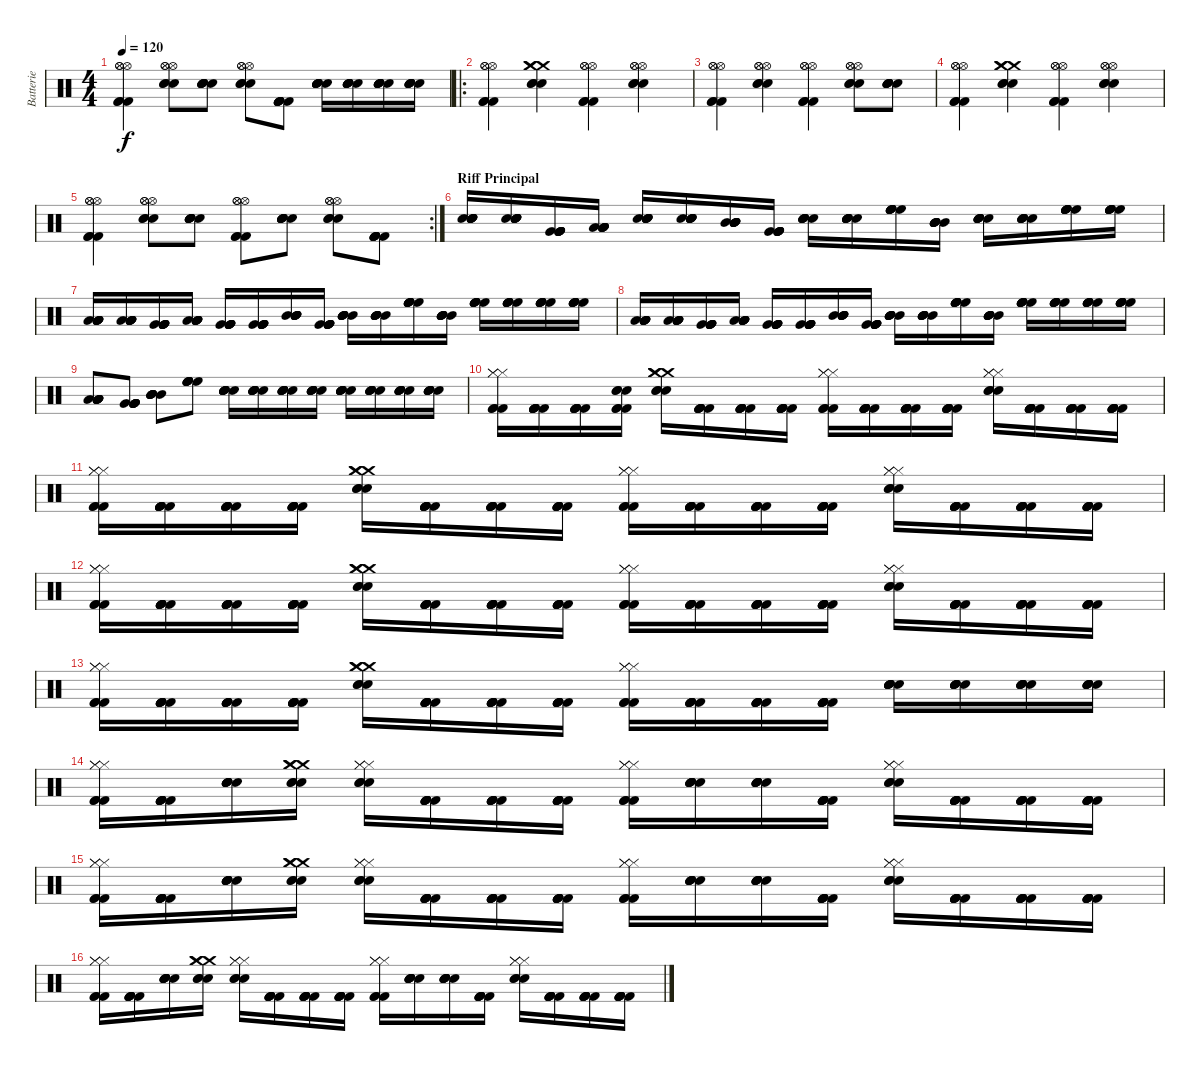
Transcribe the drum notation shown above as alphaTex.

\track ("Batterie" "Batterie") {instrument percussion}
\staff {score}
\articulation defaults
\ts (4 4)
\tempo 120
\clef neutral
\ks c
("Hi-Hat (open)" "Hi-Hat (open)" "Hi-Hat (open)" "Kick (hit) 2" "Kick (hit) 2" "Kick (hit) 2").4{dy f} ("Hi-Hat (open)" "Hi-Hat (open)" "Hi-Hat (open)" "Snare (hit) 2" "Snare (hit) 2" "Snare (hit) 2").8 ("Snare (hit) 2" "Snare (hit) 2" "Snare (hit) 2" "Snare (hit) 2" "Snare (hit) 2" "Snare (hit) 2").8 ("Hi-Hat (open)" "Hi-Hat (open)" "Hi-Hat (open)" "Snare (hit) 2" "Snare (hit) 2" "Snare (hit) 2").8 ("Kick (hit) 2" "Kick (hit) 2" "Kick (hit) 2" "Kick (hit) 2" "Kick (hit) 2" "Kick (hit) 2").8 ("Snare (hit) 2" "Snare (hit) 2" "Snare (hit) 2" "Snare (hit) 2" "Snare (hit) 2" "Snare (hit) 2").16 ("Snare (hit) 2" "Snare (hit) 2" "Snare (hit) 2" "Snare (hit) 2" "Snare (hit) 2" "Snare (hit) 2").16 ("Snare (hit) 2" "Snare (hit) 2" "Snare (hit) 2" "Snare (hit) 2" "Snare (hit) 2" "Snare (hit) 2").16 ("Snare (hit) 2" "Snare (hit) 2" "Snare (hit) 2" "Snare (hit) 2" "Snare (hit) 2" "Snare (hit) 2").16 |
\ro
("Hi-Hat (open)" "Hi-Hat (open)" "Hi-Hat (open)" "Kick (hit) 2" "Kick (hit) 2" "Kick (hit) 2").4 ("Crash medium (hit)" "Crash medium (hit)" "Crash medium (hit)" "Snare (hit) 2" "Snare (hit) 2" "Snare (hit) 2").4 ("Kick (hit) 2" "Kick (hit) 2" "Hi-Hat (open)" "Hi-Hat (open)" "Hi-Hat (open)" "Kick (hit) 2").4 ("Hi-Hat (open)" "Hi-Hat (open)" "Snare (hit) 2" "Snare (hit) 2" "Snare (hit) 2" "Hi-Hat (open)").4 |
("Hi-Hat (open)" "Hi-Hat (open)" "Hi-Hat (open)" "Kick (hit) 2" "Kick (hit) 2" "Kick (hit) 2").4 ("Hi-Hat (open)" "Hi-Hat (open)" "Hi-Hat (open)" "Snare (hit) 2" "Snare (hit) 2" "Snare (hit) 2").4 ("Kick (hit) 2" "Kick (hit) 2" "Hi-Hat (open)" "Hi-Hat (open)" "Hi-Hat (open)" "Kick (hit) 2").4 ("Hi-Hat (open)" "Hi-Hat (open)" "Snare (hit) 2" "Snare (hit) 2" "Snare (hit) 2" "Hi-Hat (open)").8 ("Snare (hit) 2" "Snare (hit) 2" "Snare (hit) 2" "Snare (hit) 2" "Snare (hit) 2" "Snare (hit) 2").8 |
("Hi-Hat (open)" "Hi-Hat (open)" "Hi-Hat (open)" "Kick (hit) 2" "Kick (hit) 2" "Kick (hit) 2").4 ("Crash medium (hit)" "Crash medium (hit)" "Crash medium (hit)" "Snare (hit) 2" "Snare (hit) 2" "Snare (hit) 2").4 ("Kick (hit) 2" "Kick (hit) 2" "Hi-Hat (open)" "Hi-Hat (open)" "Hi-Hat (open)" "Kick (hit) 2").4 ("Hi-Hat (open)" "Hi-Hat (open)" "Snare (hit) 2" "Snare (hit) 2" "Snare (hit) 2" "Hi-Hat (open)").4 |
\rc 2
("Hi-Hat (open)" "Hi-Hat (open)" "Hi-Hat (open)" "Kick (hit) 2" "Kick (hit) 2" "Kick (hit) 2").4 ("Hi-Hat (open)" "Hi-Hat (open)" "Hi-Hat (open)" "Snare (hit) 2" "Snare (hit) 2" "Snare (hit) 2").8 ("Snare (hit) 2" "Snare (hit) 2" "Snare (hit) 2" "Snare (hit) 2" "Snare (hit) 2" "Snare (hit) 2").8 ("Hi-Hat (open)" "Hi-Hat (open)" "Hi-Hat (open)" "Kick (hit) 2" "Kick (hit) 2" "Kick (hit) 2").8 ("Snare (hit) 2" "Snare (hit) 2" "Snare (hit) 2" "Snare (hit) 2" "Snare (hit) 2" "Snare (hit) 2").8 ("Hi-Hat (open)" "Hi-Hat (open)" "Hi-Hat (open)" "Snare (hit) 2" "Snare (hit) 2" "Snare (hit) 2").8 ("Kick (hit) 2" "Kick (hit) 2" "Kick (hit) 2" "Kick (hit) 2" "Kick (hit) 2" "Kick (hit) 2").8 |
\section ("" "Riff Principal")
("Snare (hit) 2" "Snare (hit) 2" "Snare (hit) 2" "Snare (hit) 2" "Snare (hit) 2" "Snare (hit) 2").16 ("Snare (hit) 2" "Snare (hit) 2" "Snare (hit) 2" "Snare (hit) 2" "Snare (hit) 2" "Snare (hit) 2").16 ("Very Low Tom (hit)" "Very Low Tom (hit)" "Very Low Tom (hit)" "Very Low Tom (hit)" "Very Low Tom (hit)" "Very Low Tom (hit)").16 ("Low Floor Tom (hit)" "Low Floor Tom (hit)" "Low Floor Tom (hit)" "Low Floor Tom (hit)" "Low Floor Tom (hit)" "Low Floor Tom (hit)").16 ("Snare (hit) 2" "Snare (hit) 2" "Snare (hit) 2" "Snare (hit) 2" "Snare (hit) 2" "Snare (hit) 2").16 ("Snare (hit) 2" "Snare (hit) 2" "Snare (hit) 2" "Snare (hit) 2" "Snare (hit) 2" "Snare (hit) 2").16 ("Mid Tom (hit)" "Mid Tom (hit)" "Mid Tom (hit)" "Mid Tom (hit)" "Mid Tom (hit)" "Mid Tom (hit)").16 ("Very Low Tom (hit)" "Very Low Tom (hit)" "Very Low Tom (hit)" "Very Low Tom (hit)" "Very Low Tom (hit)" "Very Low Tom (hit)").16 ("Snare (hit) 2" "Snare (hit) 2" "Snare (hit) 2" "Snare (hit) 2" "Snare (hit) 2" "Snare (hit) 2").16 ("Snare (hit) 2" "Snare (hit) 2" "Snare (hit) 2" "Snare (hit) 2" "Snare (hit) 2" "Snare (hit) 2").16 ("High Floor Tom (hit)" "High Floor Tom (hit)" "High Floor Tom (hit)" "High Floor Tom (hit)" "High Floor Tom (hit)" "High Floor Tom (hit)").16 ("Mid Tom (hit)" "Mid Tom (hit)" "Mid Tom (hit)" "Mid Tom (hit)" "Mid Tom (hit)" "Mid Tom (hit)").16 ("Snare (hit) 2" "Snare (hit) 2" "Snare (hit) 2" "Snare (hit) 2" "Snare (hit) 2" "Snare (hit) 2").16 ("Snare (hit) 2" "Snare (hit) 2" "Snare (hit) 2" "Snare (hit) 2" "Snare (hit) 2" "Snare (hit) 2").16 ("High Floor Tom (hit)" "High Floor Tom (hit)" "High Floor Tom (hit)" "High Floor Tom (hit)" "High Floor Tom (hit)" "High Floor Tom (hit)").16 ("High Floor Tom (hit)" "High Floor Tom (hit)" "High Floor Tom (hit)" "High Floor Tom (hit)" "High Floor Tom (hit)" "High Floor Tom (hit)").16 |
("Low Floor Tom (hit)" "Low Floor Tom (hit)" "Low Floor Tom (hit)" "Low Floor Tom (hit)" "Low Floor Tom (hit)" "Low Floor Tom (hit)").16 ("Low Floor Tom (hit)" "Low Floor Tom (hit)" "Low Floor Tom (hit)" "Low Floor Tom (hit)" "Low Floor Tom (hit)" "Low Floor Tom (hit)").16 ("Very Low Tom (hit)" "Very Low Tom (hit)" "Very Low Tom (hit)" "Very Low Tom (hit)" "Very Low Tom (hit)" "Very Low Tom (hit)").16 ("Low Floor Tom (hit)" "Low Floor Tom (hit)" "Low Floor Tom (hit)" "Low Floor Tom (hit)" "Low Floor Tom (hit)" "Low Floor Tom (hit)").16 ("Very Low Tom (hit)" "Very Low Tom (hit)" "Very Low Tom (hit)" "Very Low Tom (hit)" "Very Low Tom (hit)" "Very Low Tom (hit)").16 ("Very Low Tom (hit)" "Very Low Tom (hit)" "Very Low Tom (hit)" "Very Low Tom (hit)" "Very Low Tom (hit)" "Very Low Tom (hit)").16 ("Mid Tom (hit)" "Mid Tom (hit)" "Mid Tom (hit)" "Mid Tom (hit)" "Mid Tom (hit)" "Mid Tom (hit)").16 ("Very Low Tom (hit)" "Very Low Tom (hit)" "Very Low Tom (hit)" "Very Low Tom (hit)" "Very Low Tom (hit)" "Very Low Tom (hit)").16 ("Mid Tom (hit)" "Mid Tom (hit)" "Mid Tom (hit)" "Mid Tom (hit)" "Mid Tom (hit)" "Mid Tom (hit)").16 ("Mid Tom (hit)" "Mid Tom (hit)" "Mid Tom (hit)" "Mid Tom (hit)" "Mid Tom (hit)" "Mid Tom (hit)").16 ("High Floor Tom (hit)" "High Floor Tom (hit)" "High Floor Tom (hit)" "High Floor Tom (hit)" "High Floor Tom (hit)" "High Floor Tom (hit)").16 ("Mid Tom (hit)" "Mid Tom (hit)" "Mid Tom (hit)" "Mid Tom (hit)" "Mid Tom (hit)" "Mid Tom (hit)").16 ("High Floor Tom (hit)" "High Floor Tom (hit)" "High Floor Tom (hit)" "High Floor Tom (hit)" "High Floor Tom (hit)" "High Floor Tom (hit)").16 ("High Floor Tom (hit)" "High Floor Tom (hit)" "High Floor Tom (hit)" "High Floor Tom (hit)" "High Floor Tom (hit)" "High Floor Tom (hit)").16 ("High Floor Tom (hit)" "High Floor Tom (hit)" "High Floor Tom (hit)" "High Floor Tom (hit)" "High Floor Tom (hit)" "High Floor Tom (hit)").16 ("High Floor Tom (hit)" "High Floor Tom (hit)" "High Floor Tom (hit)" "High Floor Tom (hit)" "High Floor Tom (hit)" "High Floor Tom (hit)").16 |
("Low Floor Tom (hit)" "Low Floor Tom (hit)" "Low Floor Tom (hit)" "Low Floor Tom (hit)" "Low Floor Tom (hit)" "Low Floor Tom (hit)").16 ("Low Floor Tom (hit)" "Low Floor Tom (hit)" "Low Floor Tom (hit)" "Low Floor Tom (hit)" "Low Floor Tom (hit)" "Low Floor Tom (hit)").16 ("Very Low Tom (hit)" "Very Low Tom (hit)" "Very Low Tom (hit)" "Very Low Tom (hit)" "Very Low Tom (hit)" "Very Low Tom (hit)").16 ("Low Floor Tom (hit)" "Low Floor Tom (hit)" "Low Floor Tom (hit)" "Low Floor Tom (hit)" "Low Floor Tom (hit)" "Low Floor Tom (hit)").16 ("Very Low Tom (hit)" "Very Low Tom (hit)" "Very Low Tom (hit)" "Very Low Tom (hit)" "Very Low Tom (hit)" "Very Low Tom (hit)").16 ("Very Low Tom (hit)" "Very Low Tom (hit)" "Very Low Tom (hit)" "Very Low Tom (hit)" "Very Low Tom (hit)" "Very Low Tom (hit)").16 ("Mid Tom (hit)" "Mid Tom (hit)" "Mid Tom (hit)" "Mid Tom (hit)" "Mid Tom (hit)" "Mid Tom (hit)").16 ("Very Low Tom (hit)" "Very Low Tom (hit)" "Very Low Tom (hit)" "Very Low Tom (hit)" "Very Low Tom (hit)" "Very Low Tom (hit)").16 ("Mid Tom (hit)" "Mid Tom (hit)" "Mid Tom (hit)" "Mid Tom (hit)" "Mid Tom (hit)" "Mid Tom (hit)").16 ("Mid Tom (hit)" "Mid Tom (hit)" "Mid Tom (hit)" "Mid Tom (hit)" "Mid Tom (hit)" "Mid Tom (hit)").16 ("High Floor Tom (hit)" "High Floor Tom (hit)" "High Floor Tom (hit)" "High Floor Tom (hit)" "High Floor Tom (hit)" "High Floor Tom (hit)").16 ("Mid Tom (hit)" "Mid Tom (hit)" "Mid Tom (hit)" "Mid Tom (hit)" "Mid Tom (hit)" "Mid Tom (hit)").16 ("High Floor Tom (hit)" "High Floor Tom (hit)" "High Floor Tom (hit)" "High Floor Tom (hit)" "High Floor Tom (hit)" "High Floor Tom (hit)").16 ("High Floor Tom (hit)" "High Floor Tom (hit)" "High Floor Tom (hit)" "High Floor Tom (hit)" "High Floor Tom (hit)" "High Floor Tom (hit)").16 ("High Floor Tom (hit)" "High Floor Tom (hit)" "High Floor Tom (hit)" "High Floor Tom (hit)" "High Floor Tom (hit)" "High Floor Tom (hit)").16 ("High Floor Tom (hit)" "High Floor Tom (hit)" "High Floor Tom (hit)" "High Floor Tom (hit)" "High Floor Tom (hit)" "High Floor Tom (hit)").16 |
("Low Floor Tom (hit)" "Low Floor Tom (hit)" "Low Floor Tom (hit)" "Low Floor Tom (hit)" "Low Floor Tom (hit)" "Low Floor Tom (hit)").8 ("Very Low Tom (hit)" "Very Low Tom (hit)" "Very Low Tom (hit)" "Very Low Tom (hit)" "Very Low Tom (hit)" "Very Low Tom (hit)").8 ("Mid Tom (hit)" "Mid Tom (hit)" "Mid Tom (hit)" "Mid Tom (hit)" "Mid Tom (hit)" "Mid Tom (hit)").8 ("High Floor Tom (hit)" "High Floor Tom (hit)" "High Floor Tom (hit)" "High Floor Tom (hit)" "High Floor Tom (hit)" "High Floor Tom (hit)").8 ("Snare (hit) 2" "Snare (hit) 2" "Snare (hit) 2" "Snare (hit) 2" "Snare (hit) 2" "Snare (hit) 2").16 ("Snare (hit) 2" "Snare (hit) 2" "Snare (hit) 2" "Snare (hit) 2" "Snare (hit) 2" "Snare (hit) 2").16 ("Snare (hit) 2" "Snare (hit) 2" "Snare (hit) 2" "Snare (hit) 2" "Snare (hit) 2" "Snare (hit) 2").16 ("Snare (hit) 2" "Snare (hit) 2" "Snare (hit) 2" "Snare (hit) 2" "Snare (hit) 2" "Snare (hit) 2").16 ("Snare (hit) 2" "Snare (hit) 2" "Snare (hit) 2" "Snare (hit) 2" "Snare (hit) 2" "Snare (hit) 2").16 ("Snare (hit) 2" "Snare (hit) 2" "Snare (hit) 2" "Snare (hit) 2" "Snare (hit) 2" "Snare (hit) 2").16 ("Snare (hit) 2" "Snare (hit) 2" "Snare (hit) 2" "Snare (hit) 2" "Snare (hit) 2" "Snare (hit) 2").16 ("Snare (hit) 2" "Snare (hit) 2" "Snare (hit) 2" "Snare (hit) 2" "Snare (hit) 2" "Snare (hit) 2").16 |
("Hi-Hat (closed)" "Hi-Hat (closed)" "Hi-Hat (closed)" "Kick (hit) 2" "Kick (hit) 2" "Kick (hit) 2").16 ("Kick (hit) 2" "Kick (hit) 2" "Kick (hit) 2" "Kick (hit) 2" "Kick (hit) 2" "Kick (hit) 2").16 ("Kick (hit) 2" "Kick (hit) 2" "Kick (hit) 2" "Kick (hit) 2" "Kick (hit) 2" "Kick (hit) 2").16 ("Snare (hit) 2" "Snare (hit) 2" "Snare (hit) 2" "Kick (hit) 2" "Kick (hit) 2" "Kick (hit) 2").16 ("Crash medium (hit)" "Crash medium (hit)" "Crash medium (hit)" "Snare (hit) 2" "Snare (hit) 2" "Snare (hit) 2").16 ("Kick (hit) 2" "Kick (hit) 2" "Kick (hit) 2" "Kick (hit) 2" "Kick (hit) 2" "Kick (hit) 2").16 ("Kick (hit) 2" "Kick (hit) 2" "Kick (hit) 2" "Kick (hit) 2" "Kick (hit) 2" "Kick (hit) 2").16 ("Kick (hit) 2" "Kick (hit) 2" "Kick (hit) 2" "Kick (hit) 2" "Kick (hit) 2" "Kick (hit) 2").16 ("Kick (hit) 2" "Hi-Hat (closed)" "Hi-Hat (closed)" "Hi-Hat (closed)" "Kick (hit) 2" "Kick (hit) 2").16 ("Kick (hit) 2" "Kick (hit) 2" "Kick (hit) 2" "Kick (hit) 2" "Kick (hit) 2" "Kick (hit) 2").16 ("Kick (hit) 2" "Kick (hit) 2" "Kick (hit) 2" "Kick (hit) 2" "Kick (hit) 2" "Kick (hit) 2").16 ("Kick (hit) 2" "Kick (hit) 2" "Kick (hit) 2" "Kick (hit) 2" "Kick (hit) 2" "Kick (hit) 2").16 ("Snare (hit) 2" "Snare (hit) 2" "Snare (hit) 2" "Hi-Hat (closed)" "Hi-Hat (closed)" "Hi-Hat (closed)").16 ("Kick (hit) 2" "Kick (hit) 2" "Kick (hit) 2" "Kick (hit) 2" "Kick (hit) 2" "Kick (hit) 2").16 ("Kick (hit) 2" "Kick (hit) 2" "Kick (hit) 2" "Kick (hit) 2" "Kick (hit) 2" "Kick (hit) 2").16 ("Kick (hit) 2" "Kick (hit) 2" "Kick (hit) 2" "Kick (hit) 2" "Kick (hit) 2" "Kick (hit) 2").16 |
("Hi-Hat (closed)" "Hi-Hat (closed)" "Hi-Hat (closed)" "Kick (hit) 2" "Kick (hit) 2" "Kick (hit) 2").16 ("Kick (hit) 2" "Kick (hit) 2" "Kick (hit) 2" "Kick (hit) 2" "Kick (hit) 2" "Kick (hit) 2").16 ("Kick (hit) 2" "Kick (hit) 2" "Kick (hit) 2" "Kick (hit) 2" "Kick (hit) 2" "Kick (hit) 2").16 ("Kick (hit) 2" "Kick (hit) 2" "Kick (hit) 2" "Kick (hit) 2" "Kick (hit) 2" "Kick (hit) 2").16 ("Crash medium (hit)" "Crash medium (hit)" "Crash medium (hit)" "Snare (hit) 2" "Snare (hit) 2" "Snare (hit) 2").16 ("Kick (hit) 2" "Kick (hit) 2" "Kick (hit) 2" "Kick (hit) 2" "Kick (hit) 2" "Kick (hit) 2").16 ("Kick (hit) 2" "Kick (hit) 2" "Kick (hit) 2" "Kick (hit) 2" "Kick (hit) 2" "Kick (hit) 2").16 ("Kick (hit) 2" "Kick (hit) 2" "Kick (hit) 2" "Kick (hit) 2" "Kick (hit) 2" "Kick (hit) 2").16 ("Kick (hit) 2" "Hi-Hat (closed)" "Hi-Hat (closed)" "Hi-Hat (closed)" "Kick (hit) 2" "Kick (hit) 2").16 ("Kick (hit) 2" "Kick (hit) 2" "Kick (hit) 2" "Kick (hit) 2" "Kick (hit) 2" "Kick (hit) 2").16 ("Kick (hit) 2" "Kick (hit) 2" "Kick (hit) 2" "Kick (hit) 2" "Kick (hit) 2" "Kick (hit) 2").16 ("Kick (hit) 2" "Kick (hit) 2" "Kick (hit) 2" "Kick (hit) 2" "Kick (hit) 2" "Kick (hit) 2").16 ("Snare (hit) 2" "Snare (hit) 2" "Snare (hit) 2" "Hi-Hat (closed)" "Hi-Hat (closed)" "Hi-Hat (closed)").16 ("Kick (hit) 2" "Kick (hit) 2" "Kick (hit) 2" "Kick (hit) 2" "Kick (hit) 2" "Kick (hit) 2").16 ("Kick (hit) 2" "Kick (hit) 2" "Kick (hit) 2" "Kick (hit) 2" "Kick (hit) 2" "Kick (hit) 2").16 ("Kick (hit) 2" "Kick (hit) 2" "Kick (hit) 2" "Kick (hit) 2" "Kick (hit) 2" "Kick (hit) 2").16 |
("Hi-Hat (closed)" "Hi-Hat (closed)" "Hi-Hat (closed)" "Kick (hit) 2" "Kick (hit) 2" "Kick (hit) 2").16 ("Kick (hit) 2" "Kick (hit) 2" "Kick (hit) 2" "Kick (hit) 2" "Kick (hit) 2" "Kick (hit) 2").16 ("Kick (hit) 2" "Kick (hit) 2" "Kick (hit) 2" "Kick (hit) 2" "Kick (hit) 2" "Kick (hit) 2").16 ("Kick (hit) 2" "Kick (hit) 2" "Kick (hit) 2" "Kick (hit) 2" "Kick (hit) 2" "Kick (hit) 2").16 ("Crash medium (hit)" "Crash medium (hit)" "Crash medium (hit)" "Snare (hit) 2" "Snare (hit) 2" "Snare (hit) 2").16 ("Kick (hit) 2" "Kick (hit) 2" "Kick (hit) 2" "Kick (hit) 2" "Kick (hit) 2" "Kick (hit) 2").16 ("Kick (hit) 2" "Kick (hit) 2" "Kick (hit) 2" "Kick (hit) 2" "Kick (hit) 2" "Kick (hit) 2").16 ("Kick (hit) 2" "Kick (hit) 2" "Kick (hit) 2" "Kick (hit) 2" "Kick (hit) 2" "Kick (hit) 2").16 ("Kick (hit) 2" "Hi-Hat (closed)" "Hi-Hat (closed)" "Hi-Hat (closed)" "Kick (hit) 2" "Kick (hit) 2").16 ("Kick (hit) 2" "Kick (hit) 2" "Kick (hit) 2" "Kick (hit) 2" "Kick (hit) 2" "Kick (hit) 2").16 ("Kick (hit) 2" "Kick (hit) 2" "Kick (hit) 2" "Kick (hit) 2" "Kick (hit) 2" "Kick (hit) 2").16 ("Kick (hit) 2" "Kick (hit) 2" "Kick (hit) 2" "Kick (hit) 2" "Kick (hit) 2" "Kick (hit) 2").16 ("Snare (hit) 2" "Snare (hit) 2" "Snare (hit) 2" "Hi-Hat (closed)" "Hi-Hat (closed)" "Hi-Hat (closed)").16 ("Kick (hit) 2" "Kick (hit) 2" "Kick (hit) 2" "Kick (hit) 2" "Kick (hit) 2" "Kick (hit) 2").16 ("Kick (hit) 2" "Kick (hit) 2" "Kick (hit) 2" "Kick (hit) 2" "Kick (hit) 2" "Kick (hit) 2").16 ("Kick (hit) 2" "Kick (hit) 2" "Kick (hit) 2" "Kick (hit) 2" "Kick (hit) 2" "Kick (hit) 2").16 |
("Hi-Hat (closed)" "Hi-Hat (closed)" "Hi-Hat (closed)" "Kick (hit) 2" "Kick (hit) 2" "Kick (hit) 2").16 ("Kick (hit) 2" "Kick (hit) 2" "Kick (hit) 2" "Kick (hit) 2" "Kick (hit) 2" "Kick (hit) 2").16 ("Kick (hit) 2" "Kick (hit) 2" "Kick (hit) 2" "Kick (hit) 2" "Kick (hit) 2" "Kick (hit) 2").16 ("Kick (hit) 2" "Kick (hit) 2" "Kick (hit) 2" "Kick (hit) 2" "Kick (hit) 2" "Kick (hit) 2").16 ("Crash medium (hit)" "Crash medium (hit)" "Crash medium (hit)" "Snare (hit) 2" "Snare (hit) 2" "Snare (hit) 2").16 ("Kick (hit) 2" "Kick (hit) 2" "Kick (hit) 2" "Kick (hit) 2" "Kick (hit) 2" "Kick (hit) 2").16 ("Kick (hit) 2" "Kick (hit) 2" "Kick (hit) 2" "Kick (hit) 2" "Kick (hit) 2" "Kick (hit) 2").16 ("Kick (hit) 2" "Kick (hit) 2" "Kick (hit) 2" "Kick (hit) 2" "Kick (hit) 2" "Kick (hit) 2").16 ("Kick (hit) 2" "Hi-Hat (closed)" "Hi-Hat (closed)" "Hi-Hat (closed)" "Kick (hit) 2" "Kick (hit) 2").16 ("Kick (hit) 2" "Kick (hit) 2" "Kick (hit) 2" "Kick (hit) 2" "Kick (hit) 2" "Kick (hit) 2").16 ("Kick (hit) 2" "Kick (hit) 2" "Kick (hit) 2" "Kick (hit) 2" "Kick (hit) 2" "Kick (hit) 2").16 ("Kick (hit) 2" "Kick (hit) 2" "Kick (hit) 2" "Kick (hit) 2" "Kick (hit) 2" "Kick (hit) 2").16 ("Snare (hit) 2" "Snare (hit) 2" "Snare (hit) 2" "Snare (hit) 2" "Snare (hit) 2" "Snare (hit) 2").16 ("Snare (hit) 2" "Snare (hit) 2" "Snare (hit) 2" "Snare (hit) 2" "Snare (hit) 2" "Snare (hit) 2").16 ("Snare (hit) 2" "Snare (hit) 2" "Snare (hit) 2" "Snare (hit) 2" "Snare (hit) 2" "Snare (hit) 2").16 ("Snare (hit) 2" "Snare (hit) 2" "Snare (hit) 2" "Snare (hit) 2" "Snare (hit) 2" "Snare (hit) 2").16 |
("Hi-Hat (closed)" "Hi-Hat (closed)" "Hi-Hat (closed)" "Kick (hit) 2" "Kick (hit) 2" "Kick (hit) 2").16 ("Kick (hit) 2" "Kick (hit) 2" "Kick (hit) 2" "Kick (hit) 2" "Kick (hit) 2" "Kick (hit) 2").16 ("Snare (hit) 2" "Snare (hit) 2" "Snare (hit) 2" "Snare (hit) 2" "Snare (hit) 2" "Snare (hit) 2").16 ("Crash medium (hit)" "Crash medium (hit)" "Crash medium (hit)" "Snare (hit) 2" "Snare (hit) 2" "Snare (hit) 2").16 ("Hi-Hat (closed)" "Hi-Hat (closed)" "Hi-Hat (closed)" "Snare (hit) 2" "Snare (hit) 2" "Snare (hit) 2").16 ("Kick (hit) 2" "Kick (hit) 2" "Kick (hit) 2" "Kick (hit) 2" "Kick (hit) 2" "Kick (hit) 2").16 ("Kick (hit) 2" "Kick (hit) 2" "Kick (hit) 2" "Kick (hit) 2" "Kick (hit) 2" "Kick (hit) 2").16 ("Kick (hit) 2" "Kick (hit) 2" "Kick (hit) 2" "Kick (hit) 2" "Kick (hit) 2" "Kick (hit) 2").16 ("Kick (hit) 2" "Hi-Hat (closed)" "Hi-Hat (closed)" "Hi-Hat (closed)" "Kick (hit) 2" "Kick (hit) 2").16 ("Snare (hit) 2" "Snare (hit) 2" "Snare (hit) 2" "Snare (hit) 2" "Snare (hit) 2" "Snare (hit) 2").16 ("Snare (hit) 2" "Snare (hit) 2" "Snare (hit) 2" "Snare (hit) 2" "Snare (hit) 2" "Snare (hit) 2").16 ("Kick (hit) 2" "Kick (hit) 2" "Kick (hit) 2" "Kick (hit) 2" "Kick (hit) 2" "Kick (hit) 2").16 ("Snare (hit) 2" "Snare (hit) 2" "Snare (hit) 2" "Hi-Hat (closed)" "Hi-Hat (closed)" "Hi-Hat (closed)").16 ("Kick (hit) 2" "Kick (hit) 2" "Kick (hit) 2" "Kick (hit) 2" "Kick (hit) 2" "Kick (hit) 2").16 ("Kick (hit) 2" "Kick (hit) 2" "Kick (hit) 2" "Kick (hit) 2" "Kick (hit) 2" "Kick (hit) 2").16 ("Kick (hit) 2" "Kick (hit) 2" "Kick (hit) 2" "Kick (hit) 2" "Kick (hit) 2" "Kick (hit) 2").16 |
("Hi-Hat (closed)" "Hi-Hat (closed)" "Hi-Hat (closed)" "Kick (hit) 2" "Kick (hit) 2" "Kick (hit) 2").16 ("Kick (hit) 2" "Kick (hit) 2" "Kick (hit) 2" "Kick (hit) 2" "Kick (hit) 2" "Kick (hit) 2").16 ("Snare (hit) 2" "Snare (hit) 2" "Snare (hit) 2" "Snare (hit) 2" "Snare (hit) 2" "Snare (hit) 2").16 ("Crash medium (hit)" "Crash medium (hit)" "Crash medium (hit)" "Snare (hit) 2" "Snare (hit) 2" "Snare (hit) 2").16 ("Hi-Hat (closed)" "Hi-Hat (closed)" "Hi-Hat (closed)" "Snare (hit) 2" "Snare (hit) 2" "Snare (hit) 2").16 ("Kick (hit) 2" "Kick (hit) 2" "Kick (hit) 2" "Kick (hit) 2" "Kick (hit) 2" "Kick (hit) 2").16 ("Kick (hit) 2" "Kick (hit) 2" "Kick (hit) 2" "Kick (hit) 2" "Kick (hit) 2" "Kick (hit) 2").16 ("Kick (hit) 2" "Kick (hit) 2" "Kick (hit) 2" "Kick (hit) 2" "Kick (hit) 2" "Kick (hit) 2").16 ("Kick (hit) 2" "Hi-Hat (closed)" "Hi-Hat (closed)" "Hi-Hat (closed)" "Kick (hit) 2" "Kick (hit) 2").16 ("Snare (hit) 2" "Snare (hit) 2" "Snare (hit) 2" "Snare (hit) 2" "Snare (hit) 2" "Snare (hit) 2").16 ("Snare (hit) 2" "Snare (hit) 2" "Snare (hit) 2" "Snare (hit) 2" "Snare (hit) 2" "Snare (hit) 2").16 ("Kick (hit) 2" "Kick (hit) 2" "Kick (hit) 2" "Kick (hit) 2" "Kick (hit) 2" "Kick (hit) 2").16 ("Snare (hit) 2" "Snare (hit) 2" "Snare (hit) 2" "Hi-Hat (closed)" "Hi-Hat (closed)" "Hi-Hat (closed)").16 ("Kick (hit) 2" "Kick (hit) 2" "Kick (hit) 2" "Kick (hit) 2" "Kick (hit) 2" "Kick (hit) 2").16 ("Kick (hit) 2" "Kick (hit) 2" "Kick (hit) 2" "Kick (hit) 2" "Kick (hit) 2" "Kick (hit) 2").16 ("Kick (hit) 2" "Kick (hit) 2" "Kick (hit) 2" "Kick (hit) 2" "Kick (hit) 2" "Kick (hit) 2").16 |
("Hi-Hat (closed)" "Hi-Hat (closed)" "Hi-Hat (closed)" "Kick (hit) 2" "Kick (hit) 2" "Kick (hit) 2").16 ("Kick (hit) 2" "Kick (hit) 2" "Kick (hit) 2" "Kick (hit) 2" "Kick (hit) 2" "Kick (hit) 2").16 ("Snare (hit) 2" "Snare (hit) 2" "Snare (hit) 2" "Snare (hit) 2" "Snare (hit) 2" "Snare (hit) 2").16 ("Crash medium (hit)" "Crash medium (hit)" "Crash medium (hit)" "Snare (hit) 2" "Snare (hit) 2" "Snare (hit) 2").16 ("Hi-Hat (closed)" "Hi-Hat (closed)" "Hi-Hat (closed)" "Snare (hit) 2" "Snare (hit) 2" "Snare (hit) 2").16 ("Kick (hit) 2" "Kick (hit) 2" "Kick (hit) 2" "Kick (hit) 2" "Kick (hit) 2" "Kick (hit) 2").16 ("Kick (hit) 2" "Kick (hit) 2" "Kick (hit) 2" "Kick (hit) 2" "Kick (hit) 2" "Kick (hit) 2").16 ("Kick (hit) 2" "Kick (hit) 2" "Kick (hit) 2" "Kick (hit) 2" "Kick (hit) 2" "Kick (hit) 2").16 ("Kick (hit) 2" "Hi-Hat (closed)" "Hi-Hat (closed)" "Hi-Hat (closed)" "Kick (hit) 2" "Kick (hit) 2").16 ("Snare (hit) 2" "Snare (hit) 2" "Snare (hit) 2" "Snare (hit) 2" "Snare (hit) 2" "Snare (hit) 2").16 ("Snare (hit) 2" "Snare (hit) 2" "Snare (hit) 2" "Snare (hit) 2" "Snare (hit) 2" "Snare (hit) 2").16 ("Kick (hit) 2" "Kick (hit) 2" "Kick (hit) 2" "Kick (hit) 2" "Kick (hit) 2" "Kick (hit) 2").16 ("Snare (hit) 2" "Snare (hit) 2" "Snare (hit) 2" "Hi-Hat (closed)" "Hi-Hat (closed)" "Hi-Hat (closed)").16 ("Kick (hit) 2" "Kick (hit) 2" "Kick (hit) 2" "Kick (hit) 2" "Kick (hit) 2" "Kick (hit) 2").16 ("Kick (hit) 2" "Kick (hit) 2" "Kick (hit) 2" "Kick (hit) 2" "Kick (hit) 2" "Kick (hit) 2").16 ("Kick (hit) 2" "Kick (hit) 2" "Kick (hit) 2" "Kick (hit) 2" "Kick (hit) 2" "Kick (hit) 2").16
